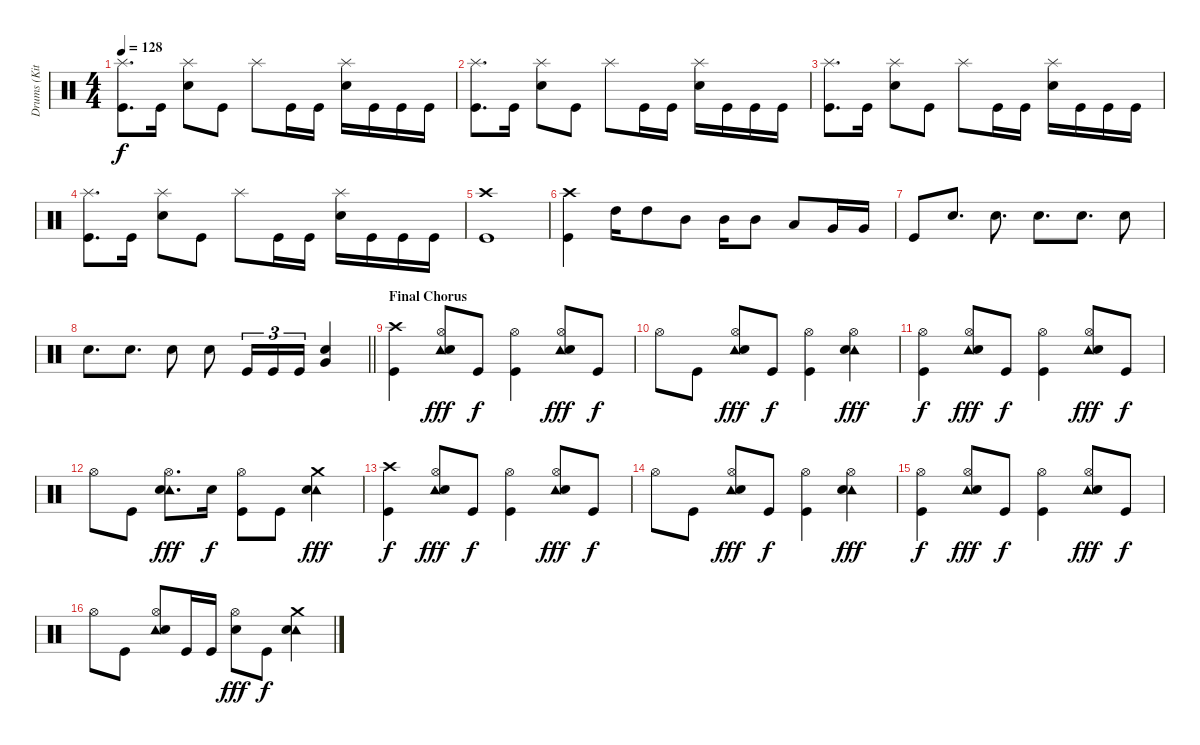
\track ("Drums (Kita)" "Drums (Kit") {instrument percussion}
\staff {score}
\articulation defaults
\ts (4 4)
\tempo 128
\clef neutral
\ks c
("Splash (hit)" "Kick (hit)").8{d dy f} "Kick (hit)".16 ("Splash (hit)" "Electric Snare (hit)").8 "Kick (hit)".8 "Splash (hit)".8 "Kick (hit)".16 "Kick (hit)".16 ("Splash (hit)" "Electric Snare (hit)").16 "Kick (hit)".16 "Kick (hit)".16 "Kick (hit)".16 |
("Splash (hit)" "Kick (hit)").8{d} "Kick (hit)".16 ("Splash (hit)" "Electric Snare (hit)").8 "Kick (hit)".8 "Splash (hit)".8 "Kick (hit)".16 "Kick (hit)".16 ("Splash (hit)" "Electric Snare (hit)").16 "Kick (hit)".16 "Kick (hit)".16 "Kick (hit)".16 |
("Splash (hit)" "Kick (hit)").8{d} "Kick (hit)".16 ("Splash (hit)" "Electric Snare (hit)").8 "Kick (hit)".8 "Splash (hit)".8 "Kick (hit)".16 "Kick (hit)".16 ("Splash (hit)" "Electric Snare (hit)").16 "Kick (hit)".16 "Kick (hit)".16 "Kick (hit)".16 |
("Splash (hit)" "Kick (hit)").8{d} "Kick (hit)".16 ("Splash (hit)" "Electric Snare (hit)").8 "Kick (hit)".8 "Splash (hit)".8 "Kick (hit)".16 "Kick (hit)".16 ("Splash (hit)" "Electric Snare (hit)").16 "Kick (hit)".16 "Kick (hit)".16 "Kick (hit)".16 |
("Crash high (hit)" "Kick (hit)").1 |
("Crash high (hit)" "Kick (hit)").4 "High Tom (hit)".16 "High Tom (hit)".8 "Mid Tom (hit)".8 "Mid Tom (hit)".16 "Mid Tom (hit)".8 "Low Tom (hit)".8 "Very Low Tom (hit)".16 "Very Low Tom (hit)".16 |
"Kick (hit)".8 "Electric Snare (hit)".8{d} "Electric Snare (hit)".8{d} "Electric Snare (hit)".8{d} "Electric Snare (hit)".8{d} "Electric Snare (hit)".8 |
\barLineRight lightlight "Electric Snare (hit)".8{d} "Electric Snare (hit)".8{d} "Electric Snare (hit)".8 "Electric Snare (hit)".8 "Kick (hit)".16{tu (3 2)} "Kick (hit)".16{tu (3 2)} "Kick (hit)".16{tu (3 2)}
("Very Low Tom (hit)" "Electric Snare (hit)").4 |
\section ("" "Final Chorus")
("Crash high (hit)" "Kick (hit)").4 ("Hi-Hat (open)" "Tambourine (hit)" "Electric Snare (hit)").8{dy fff} "Kick (hit)".8{dy f} ("Hi-Hat (open)" "Kick (hit)").4 ("Hi-Hat (open)" "Tambourine (hit)" "Electric Snare (hit)").8{dy fff} "Kick (hit)".8{dy f} |
"Hi-Hat (open)".8 "Kick (hit)".8 ("Hi-Hat (open)" "Tambourine (hit)" "Electric Snare (hit)").8{dy fff} "Kick (hit)".8{dy f} ("Hi-Hat (open)" "Kick (hit)").4 ("Hi-Hat (open)" "Tambourine (hit)" "Electric Snare (hit)").4{dy fff} |
("Hi-Hat (open)" "Kick (hit)").4{dy f} ("Hi-Hat (open)" "Tambourine (hit)" "Electric Snare (hit)").8{dy fff} "Kick (hit)".8{dy f} ("Hi-Hat (open)" "Kick (hit)").4 ("Hi-Hat (open)" "Tambourine (hit)" "Electric Snare (hit)").8{dy fff} "Kick (hit)".8{dy f} |
"Hi-Hat (open)".8 "Kick (hit)".8 ("Hi-Hat (open)" "Tambourine (hit)" "Electric Snare (hit)").8{d dy fff} "Electric Snare (hit)".16{dy f} ("Hi-Hat (open)" "Kick (hit)").8 "Kick (hit)".8 ("Crash medium (hit)" "Tambourine (hit)" "Electric Snare (hit)").4{dy fff} |
("Crash high (hit)" "Kick (hit)").4{dy f} ("Hi-Hat (open)" "Tambourine (hit)" "Electric Snare (hit)").8{dy fff} "Kick (hit)".8{dy f} ("Hi-Hat (open)" "Kick (hit)").4 ("Hi-Hat (open)" "Tambourine (hit)" "Electric Snare (hit)").8{dy fff} "Kick (hit)".8{dy f} |
"Hi-Hat (open)".8 "Kick (hit)".8 ("Hi-Hat (open)" "Tambourine (hit)" "Electric Snare (hit)").8{dy fff} "Kick (hit)".8{dy f} ("Hi-Hat (open)" "Kick (hit)").4 ("Hi-Hat (open)" "Tambourine (hit)" "Electric Snare (hit)").4{dy fff} |
("Hi-Hat (open)" "Kick (hit)").4{dy f} ("Hi-Hat (open)" "Tambourine (hit)" "Electric Snare (hit)").8{dy fff} "Kick (hit)".8{dy f} ("Hi-Hat (open)" "Kick (hit)").4 ("Hi-Hat (open)" "Tambourine (hit)" "Electric Snare (hit)").8{dy fff} "Kick (hit)".8{dy f} |
"Hi-Hat (open)".8 "Kick (hit)".8 ("Hi-Hat (open)" "Tambourine (hit)" "Electric Snare (hit)").8 "Kick (hit)".16 "Kick (hit)".16 ("Hi-Hat (open)" "Electric Snare (hit)").8{dy fff} "Kick (hit)".8{dy f} ("Crash medium (hit)" "Tambourine (hit)" "Electric Snare (hit)").4
